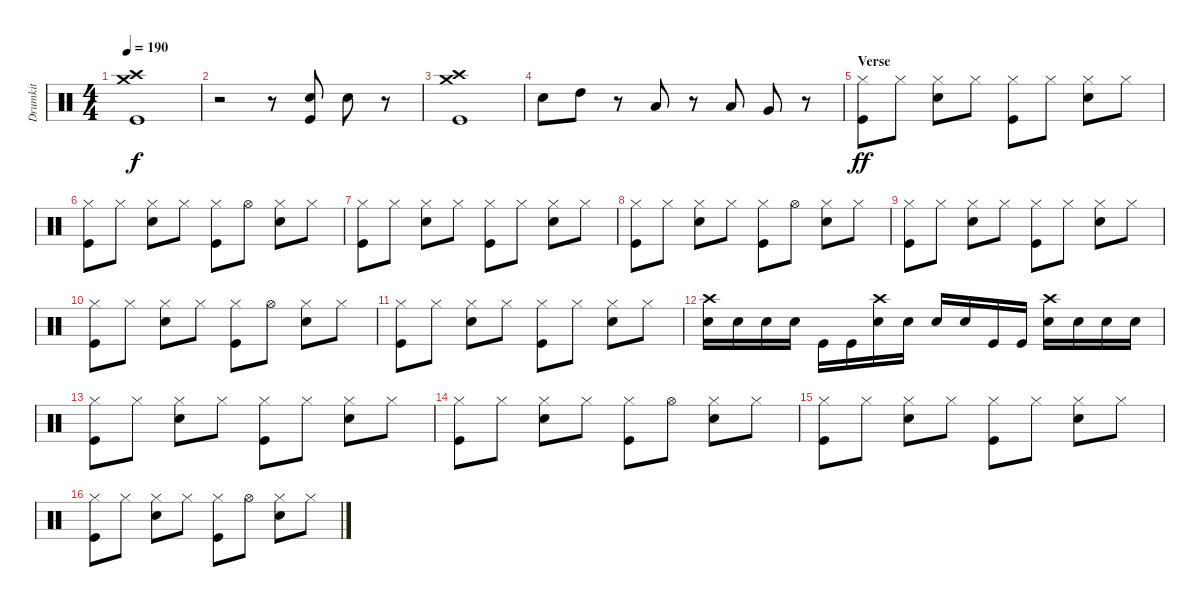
\track ("Drumkit" "Drumkit") {instrument percussion}
\staff {score}
\articulation defaults
\ts (4 4)
\tempo 190
\clef neutral
\ks c
("Crash medium (hit)" "Crash high (hit)" "Kick (hit)").1{dy f} |
r.2 r.8 ("Snare (hit) 2" "Kick (hit)").8 "Snare (hit) 2".8 r.8 |
("Crash medium (hit)" "Crash high (hit)" "Kick (hit)").1 |
"Snare (hit) 2".8 "High Tom (hit)".8 r.8 "Low Tom (hit)".8 r.8 "Low Tom (hit)".8 "Very Low Tom (hit)".8 r.8 |
\section ("" "Verse ")
("Kick (hit)" "Hi-Hat (closed)").8{dy ff} "Hi-Hat (closed)".8 ("Snare (hit) 2" "Hi-Hat (closed)").8 "Hi-Hat (closed)".8 ("Kick (hit)" "Hi-Hat (closed)").8 "Hi-Hat (closed)".8 ("Snare (hit) 2" "Hi-Hat (closed)").8 "Hi-Hat (closed)".8 |
("Kick (hit)" "Hi-Hat (closed)").8 "Hi-Hat (closed)".8 ("Snare (hit) 2" "Hi-Hat (closed)").8 "Hi-Hat (closed)".8 ("Kick (hit)" "Hi-Hat (closed)").8 "Hi-Hat (open)".8 ("Snare (hit) 2" "Hi-Hat (closed)").8 "Hi-Hat (closed)".8 |
("Kick (hit)" "Hi-Hat (closed)").8 "Hi-Hat (closed)".8 ("Snare (hit) 2" "Hi-Hat (closed)").8 "Hi-Hat (closed)".8 ("Kick (hit)" "Hi-Hat (closed)").8 "Hi-Hat (closed)".8 ("Snare (hit) 2" "Hi-Hat (closed)").8 "Hi-Hat (closed)".8 |
("Kick (hit)" "Hi-Hat (closed)").8 "Hi-Hat (closed)".8 ("Snare (hit) 2" "Hi-Hat (closed)").8 "Hi-Hat (closed)".8 ("Kick (hit)" "Hi-Hat (closed)").8 "Hi-Hat (open)".8 ("Snare (hit) 2" "Hi-Hat (closed)").8 "Hi-Hat (closed)".8 |
("Kick (hit)" "Hi-Hat (closed)").8 "Hi-Hat (closed)".8 ("Snare (hit) 2" "Hi-Hat (closed)").8 "Hi-Hat (closed)".8 ("Kick (hit)" "Hi-Hat (closed)").8 "Hi-Hat (closed)".8 ("Snare (hit) 2" "Hi-Hat (closed)").8 "Hi-Hat (closed)".8 |
("Kick (hit)" "Hi-Hat (closed)").8 "Hi-Hat (closed)".8 ("Snare (hit) 2" "Hi-Hat (closed)").8 "Hi-Hat (closed)".8 ("Kick (hit)" "Hi-Hat (closed)").8 "Hi-Hat (open)".8 ("Snare (hit) 2" "Hi-Hat (closed)").8 "Hi-Hat (closed)".8 |
("Kick (hit)" "Hi-Hat (closed)").8 "Hi-Hat (closed)".8 ("Snare (hit) 2" "Hi-Hat (closed)").8 "Hi-Hat (closed)".8 ("Kick (hit)" "Hi-Hat (closed)").8 "Hi-Hat (closed)".8 ("Snare (hit) 2" "Hi-Hat (closed)").8 "Hi-Hat (closed)".8 |
("Snare (hit) 2" "Crash high (hit)").16 "Snare (hit) 2".16 "Snare (hit) 2".16 "Snare (hit) 2".16 "Kick (hit)".16 "Kick (hit)".16 ("Snare (hit) 2" "Crash high (hit)").16 "Snare (hit) 2".16 "Snare (hit) 2".16 "Snare (hit) 2".16 "Kick (hit)".16 "Kick (hit)".16 ("Snare (hit) 2" "Crash high (hit)").16 "Snare (hit) 2".16 "Snare (hit) 2".16 "Snare (hit) 2".16 |
("Kick (hit)" "Hi-Hat (closed)").8 "Hi-Hat (closed)".8 ("Snare (hit) 2" "Hi-Hat (closed)").8 "Hi-Hat (closed)".8 ("Kick (hit)" "Hi-Hat (closed)").8 "Hi-Hat (closed)".8 ("Snare (hit) 2" "Hi-Hat (closed)").8 "Hi-Hat (closed)".8 |
("Kick (hit)" "Hi-Hat (closed)").8 "Hi-Hat (closed)".8 ("Snare (hit) 2" "Hi-Hat (closed)").8 "Hi-Hat (closed)".8 ("Kick (hit)" "Hi-Hat (closed)").8 "Hi-Hat (open)".8 ("Snare (hit) 2" "Hi-Hat (closed)").8 "Hi-Hat (closed)".8 |
("Kick (hit)" "Hi-Hat (closed)").8 "Hi-Hat (closed)".8 ("Snare (hit) 2" "Hi-Hat (closed)").8 "Hi-Hat (closed)".8 ("Kick (hit)" "Hi-Hat (closed)").8 "Hi-Hat (closed)".8 ("Snare (hit) 2" "Hi-Hat (closed)").8 "Hi-Hat (closed)".8 |
("Kick (hit)" "Hi-Hat (closed)").8 "Hi-Hat (closed)".8 ("Snare (hit) 2" "Hi-Hat (closed)").8 "Hi-Hat (closed)".8 ("Kick (hit)" "Hi-Hat (closed)").8 "Hi-Hat (open)".8 ("Snare (hit) 2" "Hi-Hat (closed)").8 "Hi-Hat (closed)".8
